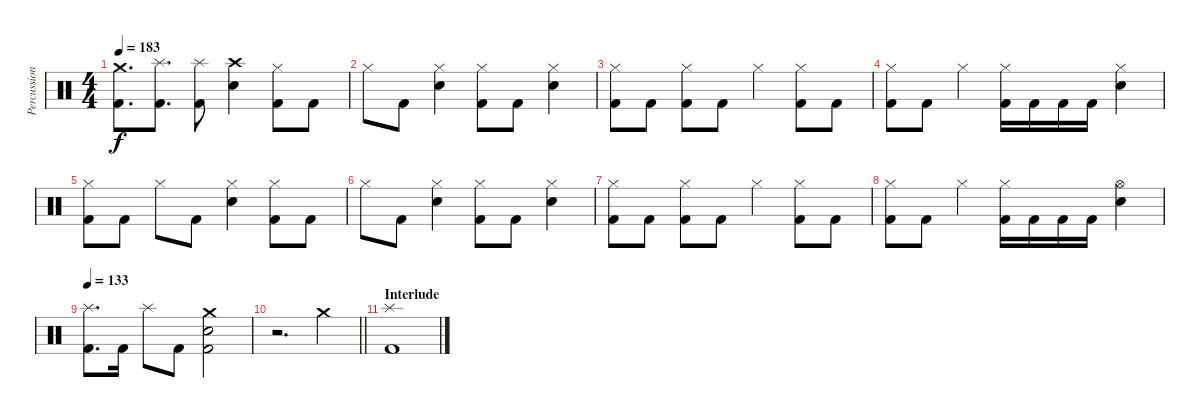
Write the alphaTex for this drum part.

\track ("Percussion" "Percussion") {instrument percussion}
\staff {score}
\articulation defaults
\ts (4 4)
\tempo 183
\clef neutral
\ks c
("Crash medium (hit)" "Kick (hit) 2").8{d dy f} ("Splash (hit)" "Kick (hit) 2").8{d} ("Splash (hit)" "Kick (hit) 2").8 ("Crash high (hit)" "Electric Snare (hit)").4 ("Hi-Hat (closed)" "Kick (hit) 2").8 "Kick (hit) 2".8 |
"Hi-Hat (closed)".8 "Kick (hit) 2".8 ("Hi-Hat (closed)" "Electric Snare (hit)").4 ("Hi-Hat (closed)" "Kick (hit) 2").8 "Kick (hit) 2".8 ("Hi-Hat (closed)" "Electric Snare (hit)").4 |
("Hi-Hat (closed)" "Kick (hit) 2").8 "Kick (hit) 2".8 ("Hi-Hat (closed)" "Kick (hit) 2").8 "Kick (hit) 2".8 "Hi-Hat (closed)".4 ("Hi-Hat (closed)" "Kick (hit) 2").8 "Kick (hit) 2".8 |
("Hi-Hat (closed)" "Kick (hit) 2").8 "Kick (hit) 2".8 "Hi-Hat (closed)".4 ("Hi-Hat (closed)" "Kick (hit) 2").16 "Kick (hit) 2".16 "Kick (hit) 2".16 "Kick (hit) 2".16 ("Hi-Hat (closed)" "Electric Snare (hit)").4 |
("Hi-Hat (closed)" "Kick (hit) 2").8 "Kick (hit) 2".8 "Hi-Hat (closed)".8 "Kick (hit) 2".8 ("Hi-Hat (closed)" "Electric Snare (hit)").4 ("Hi-Hat (closed)" "Kick (hit) 2").8 "Kick (hit) 2".8 |
"Hi-Hat (closed)".8 "Kick (hit) 2".8 ("Hi-Hat (closed)" "Electric Snare (hit)").4 ("Hi-Hat (closed)" "Kick (hit) 2").8 "Kick (hit) 2".8 ("Hi-Hat (closed)" "Electric Snare (hit)").4 |
("Hi-Hat (closed)" "Kick (hit) 2").8 "Kick (hit) 2".8 ("Hi-Hat (closed)" "Kick (hit) 2").8 "Kick (hit) 2".8 "Hi-Hat (closed)".4 ("Hi-Hat (closed)" "Kick (hit) 2").8 "Kick (hit) 2".8 |
("Hi-Hat (closed)" "Kick (hit) 2").8 "Kick (hit) 2".8 "Hi-Hat (closed)".4 ("Hi-Hat (closed)" "Kick (hit) 2").16 "Kick (hit) 2".16 "Kick (hit) 2".16 "Kick (hit) 2".16 ("Hi-Hat (open)" "Electric Snare (hit)").4 |
\tempo 133
("Splash (hit)" "Kick (hit) 2").8{d} "Kick (hit) 2".16 "Splash (hit)".8 "Kick (hit) 2".8 ("Crash medium (hit)" "Electric Snare (hit)" "Kick (hit) 2").2 |
\barLineRight lightlight
r.2{d} "Crash medium (hit)".4 |
\section ("" "Interlude")
("Splash (hit)" "Kick (hit) 2").1
